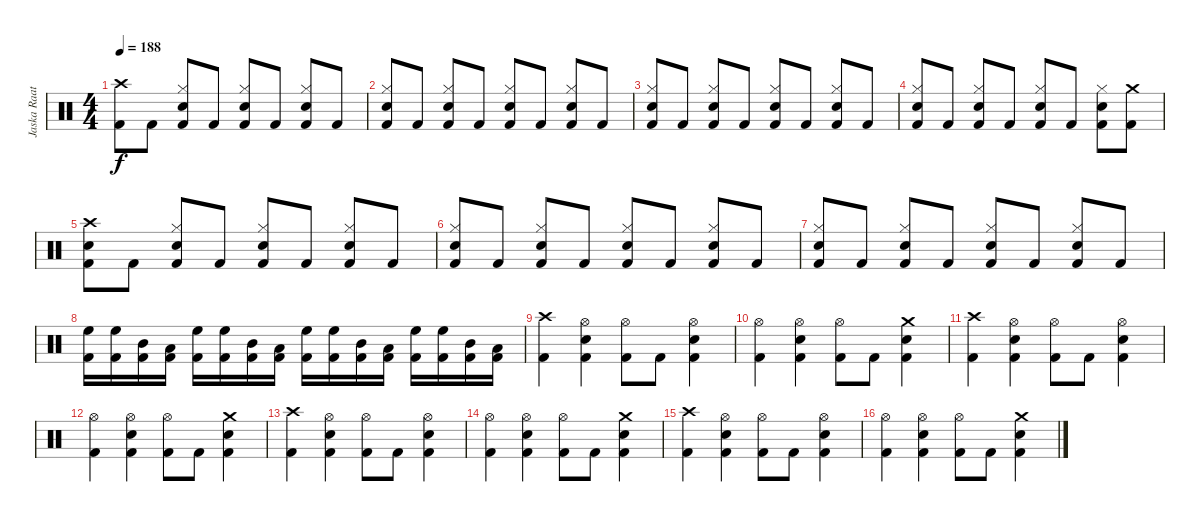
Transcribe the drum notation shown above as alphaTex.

\track ("Jaska Raatikainen" "Jaska Raat") {instrument percussion}
\staff {score}
\articulation defaults
\ts (4 4)
\tempo 188
\clef neutral
\ks c
("Crash high (hit)" "Kick (hit) 2").8{dy f} "Kick (hit) 2".8 ("Hi-Hat (closed)" "Electric Snare (hit)" "Kick (hit) 2").8 "Kick (hit) 2".8 ("Hi-Hat (closed)" "Electric Snare (hit)" "Kick (hit) 2").8 "Kick (hit) 2".8 ("Hi-Hat (closed)" "Electric Snare (hit)" "Kick (hit) 2").8 "Kick (hit) 2".8 |
("Hi-Hat (closed)" "Electric Snare (hit)" "Kick (hit) 2").8 "Kick (hit) 2".8 ("Hi-Hat (closed)" "Electric Snare (hit)" "Kick (hit) 2").8 "Kick (hit) 2".8 ("Hi-Hat (closed)" "Electric Snare (hit)" "Kick (hit) 2").8 "Kick (hit) 2".8 ("Hi-Hat (closed)" "Electric Snare (hit)" "Kick (hit) 2").8 "Kick (hit) 2".8 |
("Hi-Hat (closed)" "Electric Snare (hit)" "Kick (hit) 2").8 "Kick (hit) 2".8 ("Hi-Hat (closed)" "Electric Snare (hit)" "Kick (hit) 2").8 "Kick (hit) 2".8 ("Hi-Hat (closed)" "Electric Snare (hit)" "Kick (hit) 2").8 "Kick (hit) 2".8 ("Hi-Hat (closed)" "Electric Snare (hit)" "Kick (hit) 2").8 "Kick (hit) 2".8 |
("Hi-Hat (closed)" "Electric Snare (hit)" "Kick (hit) 2").8 "Kick (hit) 2".8 ("Hi-Hat (closed)" "Electric Snare (hit)" "Kick (hit) 2").8 "Kick (hit) 2".8 ("Hi-Hat (closed)" "Electric Snare (hit)" "Kick (hit) 2").8 "Kick (hit) 2".8 ("Hi-Hat (closed)" "Electric Snare (hit)" "Kick (hit) 2").8 ("Crash medium (hit)" "Kick (hit) 2").8 |
("Crash high (hit)" "Electric Snare (hit)" "Kick (hit) 2").8 "Kick (hit) 2".8 ("Hi-Hat (closed)" "Electric Snare (hit)" "Kick (hit) 2").8 "Kick (hit) 2".8 ("Hi-Hat (closed)" "Electric Snare (hit)" "Kick (hit) 2").8 "Kick (hit) 2".8 ("Hi-Hat (closed)" "Electric Snare (hit)" "Kick (hit) 2").8 "Kick (hit) 2".8 |
("Hi-Hat (closed)" "Electric Snare (hit)" "Kick (hit) 2").8 "Kick (hit) 2".8 ("Hi-Hat (closed)" "Electric Snare (hit)" "Kick (hit) 2").8 "Kick (hit) 2".8 ("Hi-Hat (closed)" "Electric Snare (hit)" "Kick (hit) 2").8 "Kick (hit) 2".8 ("Hi-Hat (closed)" "Electric Snare (hit)" "Kick (hit) 2").8 "Kick (hit) 2".8 |
("Hi-Hat (closed)" "Electric Snare (hit)" "Kick (hit) 2").8 "Kick (hit) 2".8 ("Hi-Hat (closed)" "Electric Snare (hit)" "Kick (hit) 2").8 "Kick (hit) 2".8 ("Hi-Hat (closed)" "Electric Snare (hit)" "Kick (hit) 2").8 "Kick (hit) 2".8 ("Hi-Hat (closed)" "Electric Snare (hit)" "Kick (hit) 2").8 "Kick (hit) 2".8 |
("High Floor Tom (hit)" "Kick (hit) 2").16 ("High Floor Tom (hit)" "Kick (hit) 2").16 ("Mid Tom (hit)" "Kick (hit) 2").16 ("Low Tom (hit)" "Kick (hit) 2").16 ("High Floor Tom (hit)" "Kick (hit) 2").16 ("High Floor Tom (hit)" "Kick (hit) 2").16 ("Mid Tom (hit)" "Kick (hit) 2").16 ("Low Tom (hit)" "Kick (hit) 2").16 ("High Floor Tom (hit)" "Kick (hit) 2").16 ("High Floor Tom (hit)" "Kick (hit) 2").16 ("Mid Tom (hit)" "Kick (hit) 2").16 ("Low Tom (hit)" "Kick (hit) 2").16 ("High Floor Tom (hit)" "Kick (hit) 2").16 ("High Floor Tom (hit)" "Kick (hit) 2").16 ("Mid Tom (hit)" "Kick (hit) 2").16 ("Low Tom (hit)" "Kick (hit) 2").16 |
("Crash high (hit)" "Kick (hit) 2").4 ("Hi-Hat (open)" "Electric Snare (hit)" "Kick (hit) 2").4 ("Hi-Hat (open)" "Kick (hit) 2").8 "Kick (hit) 2".8 ("Hi-Hat (open)" "Electric Snare (hit)" "Kick (hit) 2").4 |
("Hi-Hat (open)" "Kick (hit) 2").4 ("Hi-Hat (open)" "Electric Snare (hit)" "Kick (hit) 2").4 ("Hi-Hat (open)" "Kick (hit) 2").8 "Kick (hit) 2".8 ("Crash medium (hit)" "Electric Snare (hit)" "Kick (hit) 2").4 |
("Crash high (hit)" "Kick (hit) 2").4 ("Hi-Hat (open)" "Electric Snare (hit)" "Kick (hit) 2").4 ("Hi-Hat (open)" "Kick (hit) 2").8 "Kick (hit) 2".8 ("Hi-Hat (open)" "Electric Snare (hit)" "Kick (hit) 2").4 |
("Hi-Hat (open)" "Kick (hit) 2").4 ("Hi-Hat (open)" "Electric Snare (hit)" "Kick (hit) 2").4 ("Hi-Hat (open)" "Kick (hit) 2").8 "Kick (hit) 2".8 ("Crash medium (hit)" "Electric Snare (hit)" "Kick (hit) 2").4 |
("Crash high (hit)" "Kick (hit) 2").4 ("Hi-Hat (open)" "Electric Snare (hit)" "Kick (hit) 2").4 ("Hi-Hat (open)" "Kick (hit) 2").8 "Kick (hit) 2".8 ("Hi-Hat (open)" "Electric Snare (hit)" "Kick (hit) 2").4 |
("Hi-Hat (open)" "Kick (hit) 2").4 ("Hi-Hat (open)" "Electric Snare (hit)" "Kick (hit) 2").4 ("Hi-Hat (open)" "Kick (hit) 2").8 "Kick (hit) 2".8 ("Crash medium (hit)" "Electric Snare (hit)" "Kick (hit) 2").4 |
("Crash high (hit)" "Kick (hit) 2").4 ("Hi-Hat (open)" "Electric Snare (hit)" "Kick (hit) 2").4 ("Hi-Hat (open)" "Kick (hit) 2").8 "Kick (hit) 2".8 ("Hi-Hat (open)" "Electric Snare (hit)" "Kick (hit) 2").4 |
("Hi-Hat (open)" "Kick (hit) 2").4 ("Hi-Hat (open)" "Electric Snare (hit)" "Kick (hit) 2").4 ("Hi-Hat (open)" "Kick (hit) 2").8 "Kick (hit) 2".8 ("Crash medium (hit)" "Electric Snare (hit)" "Kick (hit) 2").4
